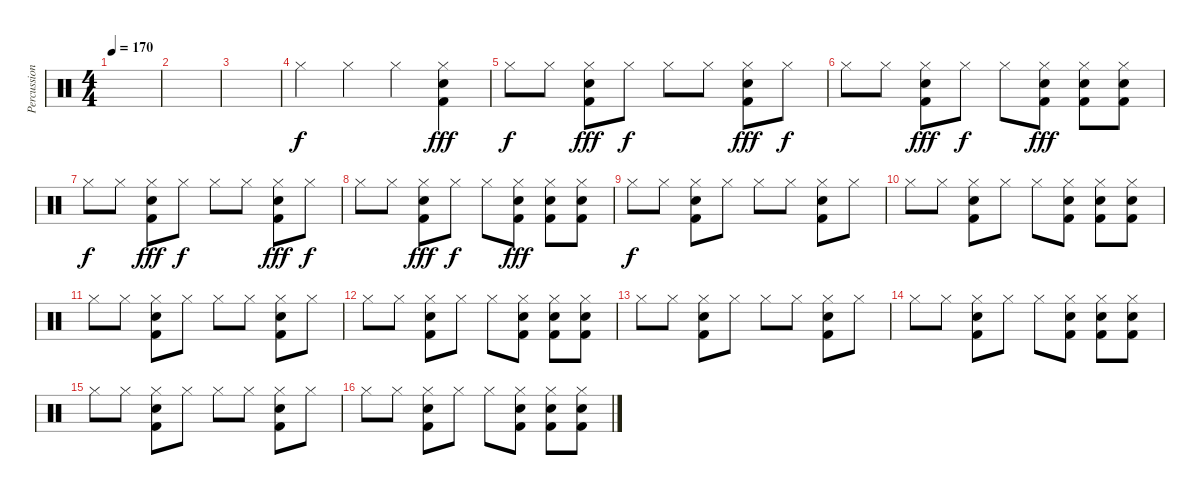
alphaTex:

\track ("Percussion" "Percussion") {instrument percussion}
\staff {score}
\articulation defaults
\ts (4 4)
\tempo 170
\clef neutral
\ks c
|
|
|
"Hi-Hat (closed)".4 "Hi-Hat (closed)".4 "Hi-Hat (closed)".4 ("Electric Snare (hit)" "Hi-Hat (closed)" "Kick (hit) 2").4{dy fff} |
"Hi-Hat (closed)".8{dy f} "Hi-Hat (closed)".8 ("Electric Snare (hit)" "Hi-Hat (closed)" "Kick (hit) 2").8{dy fff} "Hi-Hat (closed)".8{dy f} "Hi-Hat (closed)".8 "Hi-Hat (closed)".8 ("Electric Snare (hit)" "Hi-Hat (closed)" "Kick (hit) 2").8{dy fff} "Hi-Hat (closed)".8{dy f} |
"Hi-Hat (closed)".8 "Hi-Hat (closed)".8 ("Electric Snare (hit)" "Hi-Hat (closed)" "Kick (hit) 2").8{dy fff} "Hi-Hat (closed)".8{dy f} "Hi-Hat (closed)".8 ("Electric Snare (hit)" "Hi-Hat (closed)" "Kick (hit) 2").8{dy fff} ("Electric Snare (hit)" "Hi-Hat (closed)" "Kick (hit) 2").8 ("Electric Snare (hit)" "Hi-Hat (closed)" "Kick (hit) 2").8 |
"Hi-Hat (closed)".8{dy f} "Hi-Hat (closed)".8 ("Electric Snare (hit)" "Hi-Hat (closed)" "Kick (hit) 2").8{dy fff} "Hi-Hat (closed)".8{dy f} "Hi-Hat (closed)".8 "Hi-Hat (closed)".8 ("Electric Snare (hit)" "Hi-Hat (closed)" "Kick (hit) 2").8{dy fff} "Hi-Hat (closed)".8{dy f} |
"Hi-Hat (closed)".8 "Hi-Hat (closed)".8 ("Electric Snare (hit)" "Hi-Hat (closed)" "Kick (hit) 2").8{dy fff} "Hi-Hat (closed)".8{dy f} "Hi-Hat (closed)".8 ("Electric Snare (hit)" "Hi-Hat (closed)" "Kick (hit) 2").8{dy fff} ("Electric Snare (hit)" "Hi-Hat (closed)" "Kick (hit) 2").8 ("Electric Snare (hit)" "Hi-Hat (closed)" "Kick (hit) 2").8 |
"Hi-Hat (closed)".8{dy f} "Hi-Hat (closed)".8 ("Electric Snare (hit)" "Hi-Hat (closed)" "Kick (hit) 2").8 "Hi-Hat (closed)".8 "Hi-Hat (closed)".8 "Hi-Hat (closed)".8 ("Electric Snare (hit)" "Hi-Hat (closed)" "Kick (hit) 2").8 "Hi-Hat (closed)".8 |
"Hi-Hat (closed)".8 "Hi-Hat (closed)".8 ("Electric Snare (hit)" "Hi-Hat (closed)" "Kick (hit) 2").8 "Hi-Hat (closed)".8 "Hi-Hat (closed)".8 ("Electric Snare (hit)" "Hi-Hat (closed)" "Kick (hit) 2").8 ("Electric Snare (hit)" "Hi-Hat (closed)" "Kick (hit) 2").8 ("Electric Snare (hit)" "Hi-Hat (closed)" "Kick (hit) 2").8 |
"Hi-Hat (closed)".8 "Hi-Hat (closed)".8 ("Electric Snare (hit)" "Hi-Hat (closed)" "Kick (hit) 2").8 "Hi-Hat (closed)".8 "Hi-Hat (closed)".8 "Hi-Hat (closed)".8 ("Electric Snare (hit)" "Hi-Hat (closed)" "Kick (hit) 2").8 "Hi-Hat (closed)".8 |
"Hi-Hat (closed)".8 "Hi-Hat (closed)".8 ("Electric Snare (hit)" "Hi-Hat (closed)" "Kick (hit) 2").8 "Hi-Hat (closed)".8 "Hi-Hat (closed)".8 ("Electric Snare (hit)" "Hi-Hat (closed)" "Kick (hit) 2").8 ("Electric Snare (hit)" "Hi-Hat (closed)" "Kick (hit) 2").8 ("Electric Snare (hit)" "Hi-Hat (closed)" "Kick (hit) 2").8 |
"Hi-Hat (closed)".8 "Hi-Hat (closed)".8 ("Electric Snare (hit)" "Hi-Hat (closed)" "Kick (hit) 2").8 "Hi-Hat (closed)".8 "Hi-Hat (closed)".8 "Hi-Hat (closed)".8 ("Electric Snare (hit)" "Hi-Hat (closed)" "Kick (hit) 2").8 "Hi-Hat (closed)".8 |
"Hi-Hat (closed)".8 "Hi-Hat (closed)".8 ("Electric Snare (hit)" "Hi-Hat (closed)" "Kick (hit) 2").8 "Hi-Hat (closed)".8 "Hi-Hat (closed)".8 ("Electric Snare (hit)" "Hi-Hat (closed)" "Kick (hit) 2").8 ("Electric Snare (hit)" "Hi-Hat (closed)" "Kick (hit) 2").8 ("Electric Snare (hit)" "Hi-Hat (closed)" "Kick (hit) 2").8 |
"Hi-Hat (closed)".8 "Hi-Hat (closed)".8 ("Electric Snare (hit)" "Hi-Hat (closed)" "Kick (hit) 2").8 "Hi-Hat (closed)".8 "Hi-Hat (closed)".8 "Hi-Hat (closed)".8 ("Electric Snare (hit)" "Hi-Hat (closed)" "Kick (hit) 2").8 "Hi-Hat (closed)".8 |
"Hi-Hat (closed)".8 "Hi-Hat (closed)".8 ("Electric Snare (hit)" "Hi-Hat (closed)" "Kick (hit) 2").8 "Hi-Hat (closed)".8 "Hi-Hat (closed)".8 ("Electric Snare (hit)" "Hi-Hat (closed)" "Kick (hit) 2").8 ("Electric Snare (hit)" "Hi-Hat (closed)" "Kick (hit) 2").8 ("Electric Snare (hit)" "Hi-Hat (closed)" "Kick (hit) 2").8
